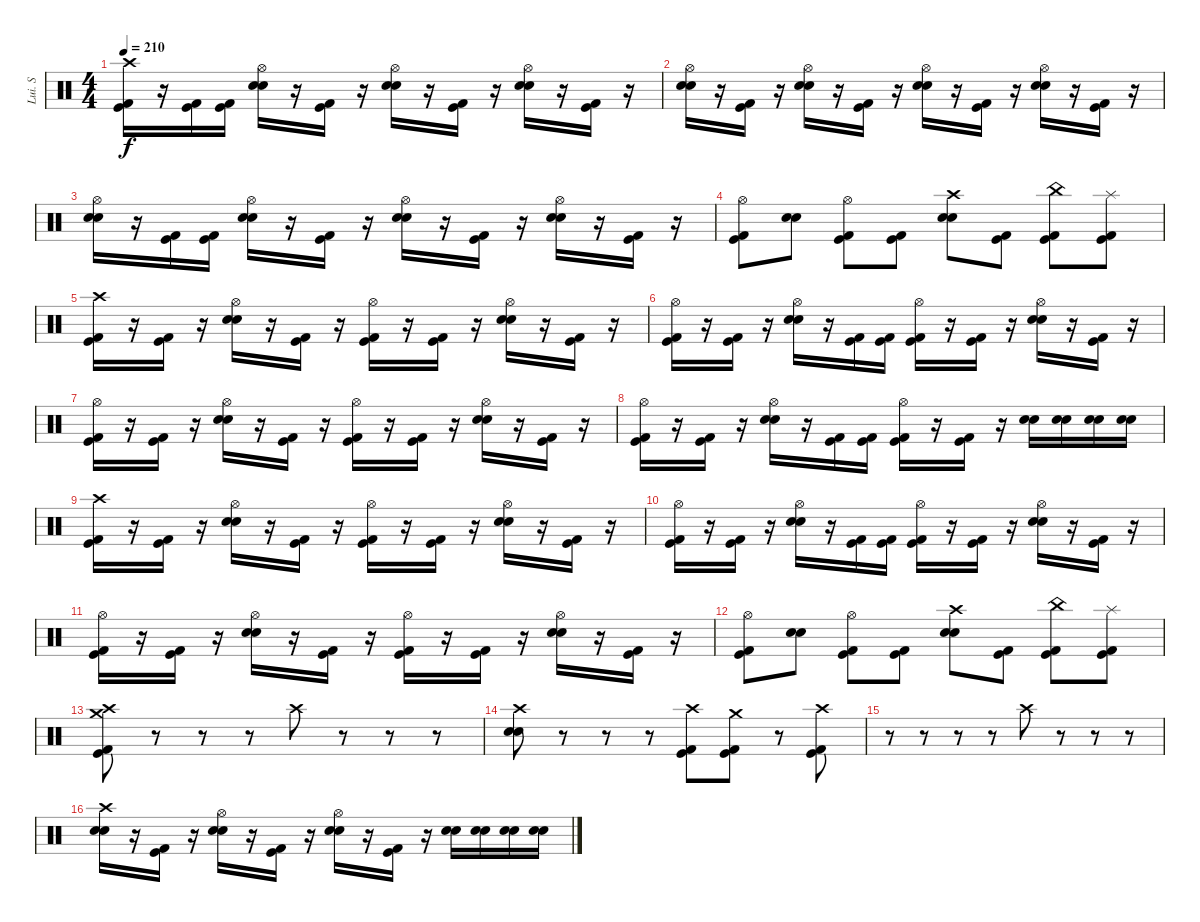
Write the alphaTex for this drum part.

\track ("Lui. S" "Lui. S") {instrument percussion}
\staff {score}
\articulation defaults
\ts (4 4)
\tempo 210
\clef neutral
\ks c
("Crash high (hit)" "Kick (hit)" "Kick (hit) 2").16{dy f} r.16 ("Kick (hit) 2" "Kick (hit)").16 ("Kick (hit) 2" "Kick (hit)").16 ("Hi-Hat (open)" "Electric Snare (hit)" "Snare (hit) 2").16 r.16 ("Kick (hit) 2" "Kick (hit)").16 r.16 ("Hi-Hat (open)" "Electric Snare (hit)" "Snare (hit) 2").16 r.16 ("Kick (hit) 2" "Kick (hit)").16 r.16 ("Hi-Hat (open)" "Electric Snare (hit)" "Snare (hit) 2").16 r.16 ("Kick (hit) 2" "Kick (hit)").16 r.16 |
("Hi-Hat (open)" "Electric Snare (hit)" "Snare (hit) 2").16 r.16 ("Kick (hit) 2" "Kick (hit)").16 r.16 ("Hi-Hat (open)" "Electric Snare (hit)" "Snare (hit) 2").16 r.16 ("Kick (hit) 2" "Kick (hit)").16 r.16 ("Hi-Hat (open)" "Electric Snare (hit)" "Snare (hit) 2").16 r.16 ("Kick (hit) 2" "Kick (hit)").16 r.16 ("Hi-Hat (open)" "Snare (hit) 2" "Electric Snare (hit)").16 r.16 ("Kick (hit) 2" "Kick (hit)").16 r.16 |
("Hi-Hat (open)" "Electric Snare (hit)" "Snare (hit) 2").16 r.16 ("Kick (hit) 2" "Kick (hit)").16 ("Kick (hit) 2" "Kick (hit)").16 ("Hi-Hat (open)" "Electric Snare (hit)" "Snare (hit) 2").16 r.16 ("Kick (hit) 2" "Kick (hit)").16 r.16 ("Hi-Hat (open)" "Electric Snare (hit)" "Snare (hit) 2").16 r.16 ("Kick (hit) 2" "Kick (hit)").16 r.16 ("Hi-Hat (open)" "Snare (hit) 2" "Electric Snare (hit)").16 r.16 ("Kick (hit) 2" "Kick (hit)").16 r.16 |
("Hi-Hat (open)" "Kick (hit) 2" "Kick (hit)").8 ("Electric Snare (hit)" "Snare (hit) 2").8 ("Hi-Hat (open)" "Kick (hit) 2" "Kick (hit)").8 ("Kick (hit) 2" "Kick (hit)").8 ("Crash high (hit)" "Electric Snare (hit)" "Snare (hit) 2").8 ("Kick (hit) 2" "Kick (hit)").8 ("China (hit)" "Kick (hit) 2" "Kick (hit)").8 ("Splash (hit)" "Kick (hit) 2" "Kick (hit)").8 |
("Crash high (hit)" "Kick (hit)" "Kick (hit) 2").16 r.16 ("Kick (hit) 2" "Kick (hit)").16 r.16 ("Hi-Hat (open)" "Electric Snare (hit)" "Snare (hit) 2").16 r.16 ("Kick (hit) 2" "Kick (hit)").16 r.16 ("Hi-Hat (open)" "Kick (hit) 2" "Kick (hit)").16 r.16 ("Kick (hit) 2" "Kick (hit)").16 r.16 ("Hi-Hat (open)" "Electric Snare (hit)" "Snare (hit) 2").16 r.16 ("Kick (hit)" "Kick (hit) 2").16 r.16 |
("Hi-Hat (open)" "Kick (hit)" "Kick (hit) 2").16 r.16 ("Kick (hit) 2" "Kick (hit)").16 r.16 ("Hi-Hat (open)" "Electric Snare (hit)" "Snare (hit) 2").16 r.16 ("Kick (hit) 2" "Kick (hit)").16 ("Kick (hit) 2" "Kick (hit)").16 ("Hi-Hat (open)" "Kick (hit) 2" "Kick (hit)").16 r.16 ("Kick (hit) 2" "Kick (hit)").16 r.16 ("Hi-Hat (open)" "Electric Snare (hit)" "Snare (hit) 2").16 r.16 ("Kick (hit)" "Kick (hit) 2").16 r.16 |
("Hi-Hat (open)" "Kick (hit)" "Kick (hit) 2").16 r.16 ("Kick (hit) 2" "Kick (hit)").16 r.16 ("Hi-Hat (open)" "Electric Snare (hit)" "Snare (hit) 2").16 r.16 ("Kick (hit) 2" "Kick (hit)").16 r.16 ("Hi-Hat (open)" "Kick (hit) 2" "Kick (hit)").16 r.16 ("Kick (hit) 2" "Kick (hit)").16 r.16 ("Hi-Hat (open)" "Electric Snare (hit)" "Snare (hit) 2").16 r.16 ("Kick (hit)" "Kick (hit) 2").16 r.16 |
("Hi-Hat (open)" "Kick (hit)" "Kick (hit) 2").16 r.16 ("Kick (hit) 2" "Kick (hit)").16 r.16 ("Hi-Hat (open)" "Electric Snare (hit)" "Snare (hit) 2").16 r.16 ("Kick (hit) 2" "Kick (hit)").16 ("Kick (hit) 2" "Kick (hit)").16 ("Hi-Hat (open)" "Kick (hit) 2" "Kick (hit)").16 r.16 ("Kick (hit) 2" "Kick (hit)").16 r.16 ("Electric Snare (hit)" "Snare (hit) 2").16 ("Electric Snare (hit)" "Snare (hit) 2").16 ("Electric Snare (hit)" "Snare (hit) 2").16 ("Electric Snare (hit)" "Snare (hit) 2").16 |
("Crash high (hit)" "Kick (hit)" "Kick (hit) 2").16 r.16 ("Kick (hit) 2" "Kick (hit)").16 r.16 ("Hi-Hat (open)" "Electric Snare (hit)" "Snare (hit) 2").16 r.16 ("Kick (hit) 2" "Kick (hit)").16 r.16 ("Hi-Hat (open)" "Kick (hit) 2" "Kick (hit)").16 r.16 ("Kick (hit) 2" "Kick (hit)").16 r.16 ("Hi-Hat (open)" "Electric Snare (hit)" "Snare (hit) 2").16 r.16 ("Kick (hit)" "Kick (hit) 2").16 r.16 |
("Hi-Hat (open)" "Kick (hit)" "Kick (hit) 2").16 r.16 ("Kick (hit) 2" "Kick (hit)").16 r.16 ("Hi-Hat (open)" "Electric Snare (hit)" "Snare (hit) 2").16 r.16 ("Kick (hit) 2" "Kick (hit)").16 ("Kick (hit) 2" "Kick (hit)").16 ("Hi-Hat (open)" "Kick (hit) 2" "Kick (hit)").16 r.16 ("Kick (hit) 2" "Kick (hit)").16 r.16 ("Hi-Hat (open)" "Electric Snare (hit)" "Snare (hit) 2").16 r.16 ("Kick (hit)" "Kick (hit) 2").16 r.16 |
("Hi-Hat (open)" "Kick (hit)" "Kick (hit) 2").16 r.16 ("Kick (hit) 2" "Kick (hit)").16 r.16 ("Hi-Hat (open)" "Electric Snare (hit)" "Snare (hit) 2").16 r.16 ("Kick (hit) 2" "Kick (hit)").16 r.16 ("Hi-Hat (open)" "Kick (hit) 2" "Kick (hit)").16 r.16 ("Kick (hit) 2" "Kick (hit)").16 r.16 ("Hi-Hat (open)" "Electric Snare (hit)" "Snare (hit) 2").16 r.16 ("Kick (hit)" "Kick (hit) 2").16 r.16 |
("Hi-Hat (open)" "Kick (hit) 2" "Kick (hit)").8 ("Electric Snare (hit)" "Snare (hit) 2").8 ("Hi-Hat (open)" "Kick (hit) 2" "Kick (hit)").8 ("Kick (hit) 2" "Kick (hit)").8 ("Crash high (hit)" "Electric Snare (hit)" "Snare (hit) 2").8 ("Kick (hit) 2" "Kick (hit)").8 ("China (hit)" "Kick (hit) 2" "Kick (hit)").8 ("Splash (hit)" "Kick (hit) 2" "Kick (hit)").8 |
("Crash medium (hit)" "Crash high (hit)" "Kick (hit) 2" "Kick (hit)").8 r.8 r.8 r.8 "Crash high (hit)".8 r.8 r.8 r.8 |
("Crash high (hit)" "Snare (hit) 2" "Electric Snare (hit)").8 r.8 r.8 r.8 ("Crash high (hit)" "Kick (hit) 2" "Kick (hit)").8 ("Crash medium (hit)" "Kick (hit) 2" "Kick (hit)").8 r.8{volume 0} ("Crash high (hit)" "Kick (hit) 2" "Kick (hit)").8{volume 16} |
r.8 r.8 r.8 r.8 "Crash high (hit)".8 r.8 r.8 r.8 |
("Crash high (hit)" "Electric Snare (hit)" "Snare (hit) 2").16 r.16 ("Kick (hit) 2" "Kick (hit)").16 r.16 ("Hi-Hat (open)" "Electric Snare (hit)" "Snare (hit) 2").16 r.16 ("Kick (hit) 2" "Kick (hit)").16 r.16 ("Hi-Hat (open)" "Snare (hit) 2" "Electric Snare (hit)").16 r.16 ("Kick (hit) 2" "Kick (hit)").16 r.16 ("Snare (hit) 2" "Electric Snare (hit)").16 ("Snare (hit) 2" "Electric Snare (hit)").16 ("Snare (hit) 2" "Electric Snare (hit)").16 ("Snare (hit) 2" "Electric Snare (hit)").16
